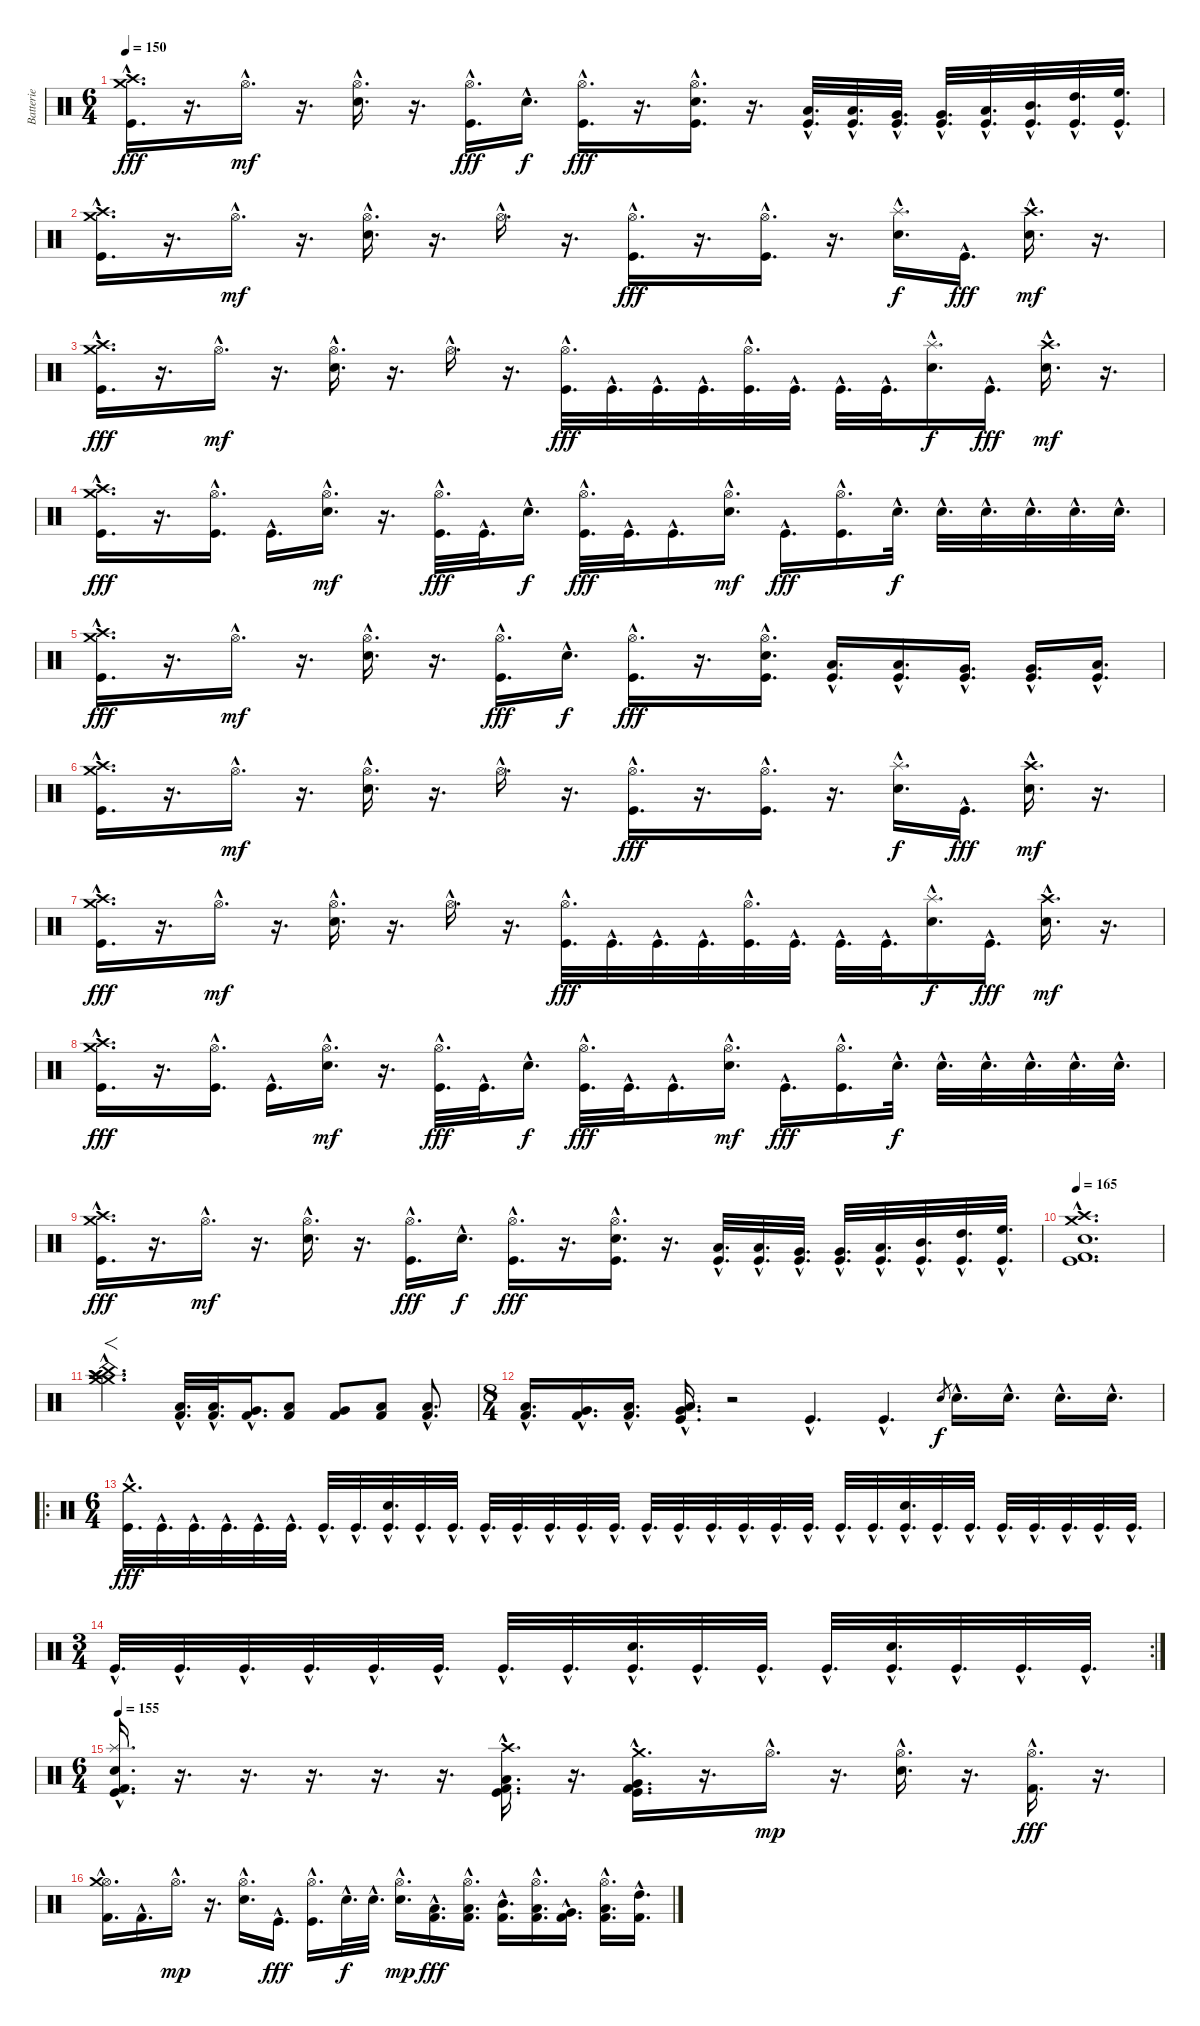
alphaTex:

\track ("Batterie" "Batterie") {instrument percussion}
\staff {score}
\articulation defaults
\ts (6 4)
\tempo 150
\clef neutral
\ks c
("Crash medium (hit)"{hac} "Crash high (hit)"{hac} "Kick (hit)"{hac}).16{d dy fff} r.16{d} "Hi-Hat (open)"{hac}.16{d dy mf} r.16{d} ("Hi-Hat (open)"{hac} "Electric Snare (hit)"{hac}).16{d} r.16{d} ("Hi-Hat (open)"{hac} "Kick (hit)"{hac}).16{d dy fff} "Electric Snare (hit)"{hac}.16{d dy f} ("Hi-Hat (open)"{hac} "Kick (hit)"{hac}).16{d dy fff} r.16{d} ("Hi-Hat (open)"{hac} "Electric Snare (hit)"{hac} "Kick (hit)"{hac}).16{d} r.16{d} ("Low Floor Tom (hit)"{hac} "Kick (hit)"{hac}).32{d} ("Low Floor Tom (hit)"{hac} "Kick (hit)"{hac}).32{d} ("Very Low Tom (hit)"{hac} "Kick (hit)"{hac}).32{d} ("Very Low Tom (hit)"{hac} "Kick (hit)"{hac}).32{d} ("Low Tom (hit)"{hac} "Kick (hit)"{hac}).32{d} ("Mid Tom (hit)"{hac} "Kick (hit)"{hac}).32{d} ("High Tom (hit)"{hac} "Kick (hit)"{hac}).32{d} ("High Floor Tom (hit)"{hac} "Kick (hit)"{hac}).32{d} |
("Crash medium (hit)"{hac} "Crash high (hit)"{hac} "Kick (hit)"{hac}).16{d} r.16{d} "Hi-Hat (open)"{hac}.16{d dy mf} r.16{d} ("Hi-Hat (open)"{hac} "Electric Snare (hit)"{hac}).16{d} r.16{d} "Hi-Hat (open)"{hac}.16{d} r.16{d} ("Hi-Hat (open)"{hac} "Kick (hit)"{hac}).16{d dy fff} r.16{d} ("Hi-Hat (open)"{hac} "Kick (hit)"{hac}).16{d} r.16{d} ("Splash (hit)"{hac} "Electric Snare (hit)"{hac}).16{d dy f} "Kick (hit)"{hac}.16{d dy fff} ("Crash high (hit)"{hac} "Electric Snare (hit)"{hac}).16{d dy mf} r.16{d} |
("Crash medium (hit)"{hac} "Crash high (hit)"{hac} "Kick (hit)"{hac}).16{d dy fff} r.16{d} "Hi-Hat (open)"{hac}.16{d dy mf} r.16{d} ("Hi-Hat (open)"{hac} "Electric Snare (hit)"{hac}).16{d} r.16{d} "Hi-Hat (open)"{hac}.16{d} r.16{d} ("Hi-Hat (open)"{hac} "Kick (hit)"{hac}).32{d dy fff} "Kick (hit)"{hac}.32{d} "Kick (hit)"{hac}.32{d} "Kick (hit)"{hac}.32{d} ("Hi-Hat (open)"{hac} "Kick (hit)"{hac}).32{d} "Kick (hit)"{hac}.32{d} "Kick (hit)"{hac}.32{d} "Kick (hit)"{hac}.32{d} ("Splash (hit)"{hac} "Electric Snare (hit)"{hac}).16{d dy f} "Kick (hit)"{hac}.16{d dy fff} ("Crash high (hit)"{hac} "Electric Snare (hit)"{hac}).16{d dy mf} r.16{d} |
("Crash medium (hit)"{hac} "Crash high (hit)"{hac} "Kick (hit)"{hac}).16{d dy fff} r.16{d} ("Hi-Hat (open)"{hac} "Kick (hit)"{hac}).16{d} "Kick (hit)"{hac}.16{d} ("Hi-Hat (open)"{hac} "Electric Snare (hit)"{hac}).16{d dy mf} r.16{d} ("Hi-Hat (open)"{hac} "Kick (hit)"{hac}).32{d dy fff} "Kick (hit)"{hac}.32{d} "Electric Snare (hit)"{hac}.16{d dy f} ("Hi-Hat (open)"{hac} "Kick (hit)"{hac}).32{d dy fff} "Kick (hit)"{hac}.32{d} "Kick (hit)"{hac}.16{d} ("Hi-Hat (open)"{hac} "Electric Snare (hit)"{hac}).16{d dy mf} "Kick (hit)"{hac}.16{d dy fff} ("Hi-Hat (open)"{hac} "Kick (hit)"{hac}).16{d} "Electric Snare (hit)"{hac}.32{d dy f} "Electric Snare (hit)"{hac}.32{d} "Electric Snare (hit)"{hac}.32{d} "Electric Snare (hit)"{hac}.32{d} "Electric Snare (hit)"{hac}.32{d} "Electric Snare (hit)"{hac}.32{d} |
("Crash medium (hit)"{hac} "Crash high (hit)"{hac} "Kick (hit)"{hac}).16{d dy fff} r.16{d} "Hi-Hat (open)"{hac}.16{d dy mf} r.16{d} ("Hi-Hat (open)"{hac} "Electric Snare (hit)"{hac}).16{d} r.16{d} ("Hi-Hat (open)"{hac} "Kick (hit)"{hac}).16{d dy fff} "Electric Snare (hit)"{hac}.16{d dy f} ("Hi-Hat (open)"{hac} "Kick (hit)"{hac}).16{d dy fff} r.16{d} ("Hi-Hat (open)"{hac} "Electric Snare (hit)"{hac} "Kick (hit)"{hac}).16{d} ("Low Floor Tom (hit)"{hac} "Kick (hit)"{hac}).16{d} ("Low Floor Tom (hit)"{hac} "Kick (hit)"{hac}).16{d} ("Very Low Tom (hit)"{hac} "Kick (hit)"{hac}).16{d} ("Very Low Tom (hit)"{hac} "Kick (hit)"{hac}).16{d} ("Low Tom (hit)"{hac} "Kick (hit)"{hac}).16{d} |
("Crash medium (hit)"{hac} "Crash high (hit)"{hac} "Kick (hit)"{hac}).16{d} r.16{d} "Hi-Hat (open)"{hac}.16{d dy mf} r.16{d} ("Hi-Hat (open)"{hac} "Electric Snare (hit)"{hac}).16{d} r.16{d} "Hi-Hat (open)"{hac}.16{d} r.16{d} ("Hi-Hat (open)"{hac} "Kick (hit)"{hac}).16{d dy fff} r.16{d} ("Hi-Hat (open)"{hac} "Kick (hit)"{hac}).16{d} r.16{d} ("Splash (hit)"{hac} "Electric Snare (hit)"{hac}).16{d dy f} "Kick (hit)"{hac}.16{d dy fff} ("Crash high (hit)"{hac} "Electric Snare (hit)"{hac}).16{d dy mf} r.16{d} |
("Crash medium (hit)"{hac} "Crash high (hit)"{hac} "Kick (hit)"{hac}).16{d dy fff} r.16{d} "Hi-Hat (open)"{hac}.16{d dy mf} r.16{d} ("Hi-Hat (open)"{hac} "Electric Snare (hit)"{hac}).16{d} r.16{d} "Hi-Hat (open)"{hac}.16{d} r.16{d} ("Hi-Hat (open)"{hac} "Kick (hit)"{hac}).32{d dy fff} "Kick (hit)"{hac}.32{d} "Kick (hit)"{hac}.32{d} "Kick (hit)"{hac}.32{d} ("Hi-Hat (open)"{hac} "Kick (hit)"{hac}).32{d} "Kick (hit)"{hac}.32{d} "Kick (hit)"{hac}.32{d} "Kick (hit)"{hac}.32{d} ("Splash (hit)"{hac} "Electric Snare (hit)"{hac}).16{d dy f} "Kick (hit)"{hac}.16{d dy fff} ("Crash high (hit)"{hac} "Electric Snare (hit)"{hac}).16{d dy mf} r.16{d} |
("Crash medium (hit)"{hac} "Crash high (hit)"{hac} "Kick (hit)"{hac}).16{d dy fff} r.16{d} ("Hi-Hat (open)"{hac} "Kick (hit)"{hac}).16{d} "Kick (hit)"{hac}.16{d} ("Hi-Hat (open)"{hac} "Electric Snare (hit)"{hac}).16{d dy mf} r.16{d} ("Hi-Hat (open)"{hac} "Kick (hit)"{hac}).32{d dy fff} "Kick (hit)"{hac}.32{d} "Electric Snare (hit)"{hac}.16{d dy f} ("Hi-Hat (open)"{hac} "Kick (hit)"{hac}).32{d dy fff} "Kick (hit)"{hac}.32{d} "Kick (hit)"{hac}.16{d} ("Hi-Hat (open)"{hac} "Electric Snare (hit)"{hac}).16{d dy mf} "Kick (hit)"{hac}.16{d dy fff} ("Hi-Hat (open)"{hac} "Kick (hit)"{hac}).16{d} "Electric Snare (hit)"{hac}.32{d dy f} "Electric Snare (hit)"{hac}.32{d} "Electric Snare (hit)"{hac}.32{d} "Electric Snare (hit)"{hac}.32{d} "Electric Snare (hit)"{hac}.32{d} "Electric Snare (hit)"{hac}.32{d} |
("Crash medium (hit)"{hac} "Crash high (hit)"{hac} "Kick (hit)"{hac}).16{d dy fff} r.16{d} "Hi-Hat (open)"{hac}.16{d dy mf} r.16{d} ("Hi-Hat (open)"{hac} "Electric Snare (hit)"{hac}).16{d} r.16{d} ("Hi-Hat (open)"{hac} "Kick (hit)"{hac}).16{d dy fff} "Electric Snare (hit)"{hac}.16{d dy f} ("Hi-Hat (open)"{hac} "Kick (hit)"{hac}).16{d dy fff} r.16{d} ("Hi-Hat (open)"{hac} "Electric Snare (hit)"{hac} "Kick (hit)"{hac}).16{d} r.16{d} ("Low Floor Tom (hit)"{hac} "Kick (hit)"{hac}).32{d} ("Low Floor Tom (hit)"{hac} "Kick (hit)"{hac}).32{d} ("Very Low Tom (hit)"{hac} "Kick (hit)"{hac}).32{d} ("Very Low Tom (hit)"{hac} "Kick (hit)"{hac}).32{d} ("Low Tom (hit)"{hac} "Kick (hit)"{hac}).32{d} ("Mid Tom (hit)"{hac} "Kick (hit)"{hac}).32{d} ("High Tom (hit)"{hac} "Kick (hit)"{hac}).32{d} ("High Floor Tom (hit)"{hac} "Kick (hit)"{hac}).32{d} |
\tempo 165
("Crash medium (hit)"{hac} "Crash high (hit)"{hac} "Electric Snare (hit)"{hac} "Kick (hit) 2"{hac} "Kick (hit)"{hac}).1{d} |
("Crash medium (hit)"{hac} "Crash high (hit)"{hac} "Crash high (hit)"{hac} "China (hit)"{hac} "Splash (hit)"{hac} "Crash medium (hit)"{hac}).2{f d} ("Low Floor Tom (hit)"{hac} "Kick (hit) 2"{hac}).32{d} ("Low Floor Tom (hit)"{hac} "Kick (hit) 2"{hac}).32{d} ("Very Low Tom (hit)"{hac} "Kick (hit) 2"{hac}).16{d} ("Low Tom (hit)" "Kick (hit) 2").8 ("Very Low Tom (hit)" "Kick (hit) 2").8 ("Low Tom (hit)" "Kick (hit) 2").8 ("Low Floor Tom (hit)"{hac} "Kick (hit) 2"{hac}).8{d} |
\ts (8 4)
("Low Tom (hit)"{hac} "Kick (hit) 2"{hac}).16{d} ("Very Low Tom (hit)"{hac} "Kick (hit) 2"{hac}).16{d} ("Low Floor Tom (hit)"{hac} "Kick (hit) 2"{hac}).16{d} ("Very Low Tom (hit)"{hac} "Low Floor Tom (hit)"{hac} "Kick (hit)"{hac}).16{d} r.2 "Kick (hit)"{hac}.4{d} "Kick (hit)"{hac}.4{d} "Electric Snare (hit)".8{gr dy f} "Electric Snare (hit)"{hac}.16{d} "Electric Snare (hit)"{hac}.16{d} "Electric Snare (hit)"{hac}.16{d} "Electric Snare (hit)"{hac}.16{d} |
\ro
\ts (6 4)
("Crash medium (hit)"{hac} "Kick (hit)"{hac}).32{d dy fff} "Kick (hit)"{hac}.32{d} "Kick (hit)"{hac}.32{d} "Kick (hit)"{hac}.32{d} "Kick (hit)"{hac}.32{d} "Kick (hit)"{hac}.32{d} "Kick (hit)"{hac}.32{d} "Kick (hit)"{hac}.32{d} ("Electric Snare (hit)"{hac} "Kick (hit)"{hac}).32{d} "Kick (hit)"{hac}.32{d} "Kick (hit)"{hac}.32{d} "Kick (hit)"{hac}.32{d} "Kick (hit)"{hac}.32{d} "Kick (hit)"{hac}.32{d} "Kick (hit)"{hac}.32{d} "Kick (hit)"{hac}.32{d} "Kick (hit)"{hac}.32{d} "Kick (hit)"{hac}.32{d} "Kick (hit)"{hac}.32{d} "Kick (hit)"{hac}.32{d} "Kick (hit)"{hac}.32{d} "Kick (hit)"{hac}.32{d} "Kick (hit)"{hac}.32{d} "Kick (hit)"{hac}.32{d} ("Electric Snare (hit)"{hac} "Kick (hit)"{hac}).32{d} "Kick (hit)"{hac}.32{d} "Kick (hit)"{hac}.32{d} "Kick (hit)"{hac}.32{d} "Kick (hit)"{hac}.32{d} "Kick (hit)"{hac}.32{d} "Kick (hit)"{hac}.32{d} "Kick (hit)"{hac}.32{d} |
\rc 2
\ts (3 4)
"Kick (hit)"{hac}.32{d} "Kick (hit)"{hac}.32{d} "Kick (hit)"{hac}.32{d} "Kick (hit)"{hac}.32{d} "Kick (hit)"{hac}.32{d} "Kick (hit)"{hac}.32{d} "Kick (hit)"{hac}.32{d} "Kick (hit)"{hac}.32{d} ("Electric Snare (hit)"{hac} "Kick (hit)"{hac}).32{d} "Kick (hit)"{hac}.32{d} "Kick (hit)"{hac}.32{d} "Kick (hit)"{hac}.32{d} ("Electric Snare (hit)"{hac} "Kick (hit)"{hac}).32{d} "Kick (hit)"{hac}.32{d} "Kick (hit)"{hac}.32{d} "Kick (hit)"{hac}.32{d} |
\ts (6 4)
\tempo 155
("Splash (hit)"{hac} "Electric Snare (hit)"{hac} "Kick (hit)"{hac} "Kick (hit) 2"{hac}).16{d} r.16{d} r.16{d} r.16{d} r.16{d} r.16{d} ("Crash high (hit)"{hac} "Low Floor Tom (hit)"{hac} "Kick (hit)"{hac} "Kick (hit) 2"{hac}).16{d} r.16{d} ("Crash medium (hit)"{hac} "Very Low Tom (hit)"{hac} "Kick (hit)"{hac} "Kick (hit) 2"{hac}).16{d} r.16{d} "Hi-Hat (open)"{hac}.16{d dy mp} r.16{d} ("Hi-Hat (open)"{hac} "Electric Snare (hit)"{hac}).16{d} r.16{d} ("Hi-Hat (open)"{hac} "Kick (hit) 2"{hac}).16{d dy fff} r.16{d} |
("Hi-Hat (open)"{hac} "Crash medium (hit)"{hac} "Kick (hit) 2"{hac}).16{d} "Kick (hit) 2"{hac}.16{d} "Hi-Hat (open)"{hac}.16{d dy mp} r.16{d} ("Hi-Hat (open)"{hac} "Electric Snare (hit)"{hac}).16{d} "Kick (hit)"{hac}.16{d dy fff} ("Hi-Hat (open)"{hac} "Kick (hit)"{hac}).16{d} "Electric Snare (hit)"{hac}.32{d dy f} "Electric Snare (hit)"{hac}.32{d} ("Hi-Hat (open)"{hac} "Electric Snare (hit)"{hac}).16{d dy mp} ("Low Floor Tom (hit)"{hac} "Kick (hit) 2"{hac}).16{d dy fff} ("Hi-Hat (open)"{hac} "Low Tom (hit)"{hac} "Kick (hit) 2"{hac}).16{d} ("Mid Tom (hit)"{hac} "Kick (hit) 2"{hac}).16{d} ("Hi-Hat (open)"{hac} "Low Tom (hit)"{hac} "Kick (hit) 2"{hac}).16{d} ("Very Low Tom (hit)"{hac} "Kick (hit) 2"{hac}).16{d} ("Hi-Hat (open)"{hac} "Low Floor Tom (hit)"{hac} "Kick (hit) 2"{hac}).16{d} ("High Tom (hit)"{hac} "Kick (hit) 2"{hac}).16{d}
